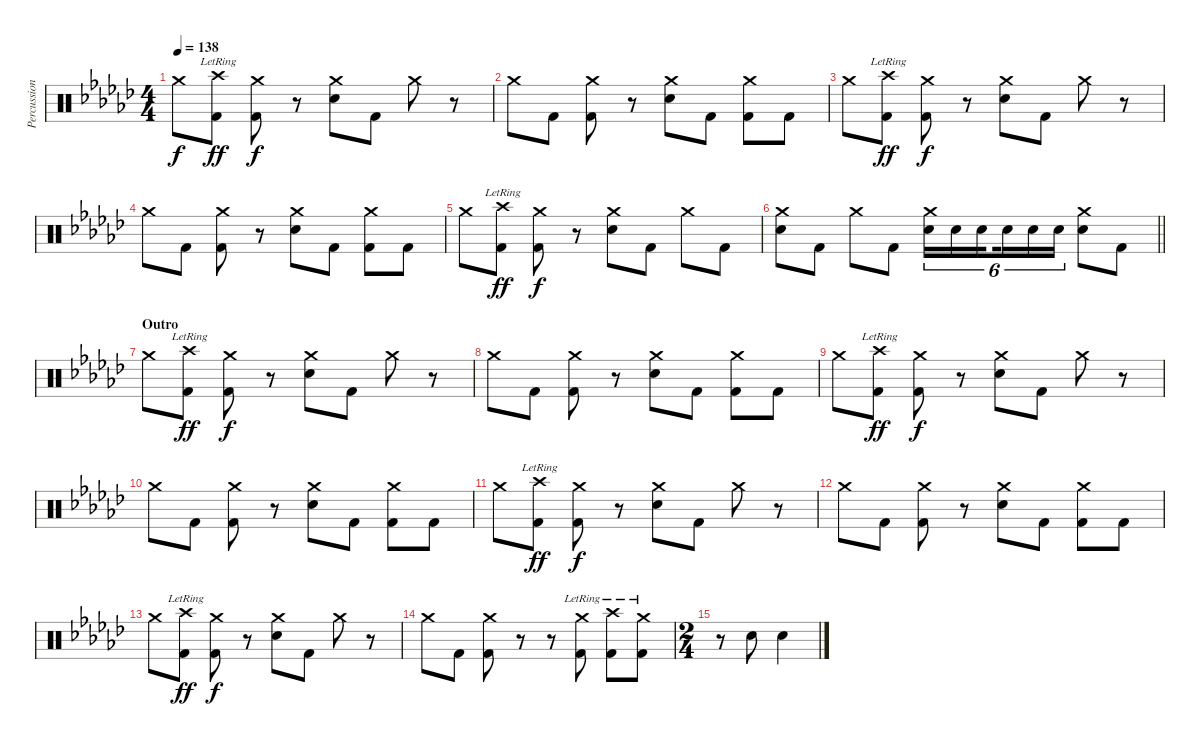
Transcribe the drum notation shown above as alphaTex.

\track ("Percussion" "Percussion") {instrument percussion}
\staff {score}
\articulation defaults
\ts (4 4)
\tempo 138
\clef neutral
\ks gb "Crash medium (hit)".8{dy f}
("Crash high (hit)"{lr} "Kick (hit) 2").8{dy ff} ("Crash medium (hit)" "Kick (hit) 2").8{dy f} r.8 ("Crash medium (hit)" "Electric Snare (hit)").8 "Kick (hit) 2".8 "Crash medium (hit)".8 r.8 |
"Crash medium (hit)".8 "Kick (hit) 2".8 ("Crash medium (hit)" "Kick (hit) 2").8 r.8 ("Crash medium (hit)" "Electric Snare (hit)").8 "Kick (hit) 2".8 ("Crash medium (hit)" "Kick (hit) 2").8 "Kick (hit) 2".8 |
"Crash medium (hit)".8 ("Crash high (hit)"{lr} "Kick (hit) 2").8{dy ff} ("Crash medium (hit)" "Kick (hit) 2").8{dy f} r.8 ("Crash medium (hit)" "Electric Snare (hit)").8 "Kick (hit) 2".8 "Crash medium (hit)".8 r.8 |
"Crash medium (hit)".8 "Kick (hit) 2".8 ("Crash medium (hit)" "Kick (hit) 2").8 r.8 ("Crash medium (hit)" "Electric Snare (hit)").8 "Kick (hit) 2".8 ("Crash medium (hit)" "Kick (hit) 2").8 "Kick (hit) 2".8 |
"Crash medium (hit)".8 ("Crash high (hit)"{lr} "Kick (hit) 2").8{dy ff} ("Crash medium (hit)" "Kick (hit) 2").8{dy f} r.8 ("Crash medium (hit)" "Electric Snare (hit)").8 "Kick (hit) 2".8 "Crash medium (hit)".8 "Kick (hit) 2".8 |
\barLineRight lightlight
("Crash medium (hit)" "Electric Snare (hit)").8 "Kick (hit) 2".8 "Crash medium (hit)".8 "Kick (hit) 2".8 ("Crash medium (hit)" "Electric Snare (hit)").16{tu (6 4)} "Electric Snare (hit)".16{tu (6 4)} "Electric Snare (hit)".16{tu (6 4) beam splitsecondary} "Electric Snare (hit)".16{tu (6 4)} "Electric Snare (hit)".16{tu (6 4)} "Electric Snare (hit)".16{tu (6 4)} ("Crash medium (hit)" "Electric Snare (hit)").8 "Kick (hit) 2".8 |
\section ("" "Outro")
"Crash medium (hit)".8 ("Crash high (hit)"{lr} "Kick (hit) 2").8{dy ff} ("Crash medium (hit)" "Kick (hit) 2").8{dy f} r.8 ("Crash medium (hit)" "Electric Snare (hit)").8 "Kick (hit) 2".8 "Crash medium (hit)".8 r.8 |
"Crash medium (hit)".8 "Kick (hit) 2".8 ("Crash medium (hit)" "Kick (hit) 2").8 r.8 ("Crash medium (hit)" "Electric Snare (hit)").8 "Kick (hit) 2".8 ("Crash medium (hit)" "Kick (hit) 2").8 "Kick (hit) 2".8 |
"Crash medium (hit)".8 ("Crash high (hit)"{lr} "Kick (hit) 2").8{dy ff} ("Crash medium (hit)" "Kick (hit) 2").8{dy f} r.8 ("Crash medium (hit)" "Electric Snare (hit)").8 "Kick (hit) 2".8 "Crash medium (hit)".8 r.8 |
"Crash medium (hit)".8 "Kick (hit) 2".8 ("Crash medium (hit)" "Kick (hit) 2").8 r.8 ("Crash medium (hit)" "Electric Snare (hit)").8 "Kick (hit) 2".8 ("Crash medium (hit)" "Kick (hit) 2").8 "Kick (hit) 2".8 |
"Crash medium (hit)".8 ("Crash high (hit)"{lr} "Kick (hit) 2").8{dy ff} ("Crash medium (hit)" "Kick (hit) 2").8{dy f} r.8 ("Crash medium (hit)" "Electric Snare (hit)").8 "Kick (hit) 2".8 "Crash medium (hit)".8 r.8 |
"Crash medium (hit)".8 "Kick (hit) 2".8 ("Crash medium (hit)" "Kick (hit) 2").8 r.8 ("Crash medium (hit)" "Electric Snare (hit)").8 "Kick (hit) 2".8 ("Crash medium (hit)" "Kick (hit) 2").8 "Kick (hit) 2".8 |
"Crash medium (hit)".8 ("Crash high (hit)"{lr} "Kick (hit) 2").8{dy ff} ("Crash medium (hit)" "Kick (hit) 2").8{dy f} r.8 ("Crash medium (hit)" "Electric Snare (hit)").8 "Kick (hit) 2".8 "Crash medium (hit)".8 r.8 |
"Crash medium (hit)".8 "Kick (hit) 2".8 ("Crash medium (hit)" "Kick (hit) 2").8 r.8 r.8 ("Crash medium (hit)"{lr} "Kick (hit) 2").8 ("Crash high (hit)"{lr} "Kick (hit) 2").8 ("Crash medium (hit)"{lr} "Kick (hit) 2").8 |
\ts (2 4)
r.8 "Electric Snare (hit)".8 "Electric Snare (hit)".4
